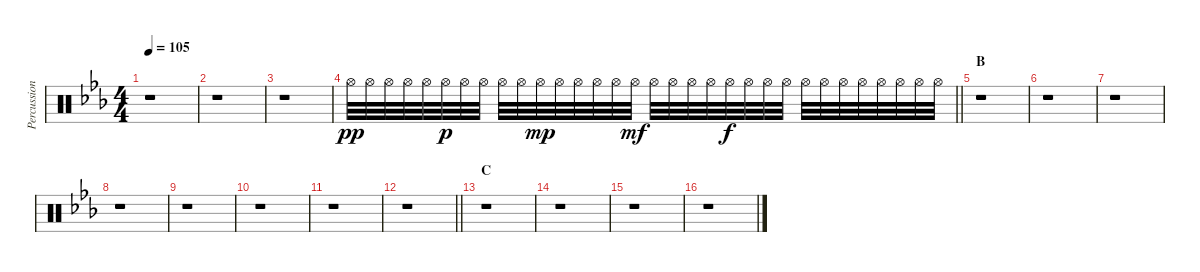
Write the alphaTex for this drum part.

\track ("Percussion" "Percussion") {instrument percussion}
\staff {score}
\articulation defaults
\ts (4 4)
\tempo 105
\clef neutral
\ks eb
r.1{dy pp} |
r.1 |
r.1 |
\barLineRight lightlight "Hi-Hat (open)".32 "Hi-Hat (open)".32 "Hi-Hat (open)".32 "Hi-Hat (open)".32 "Hi-Hat (open)".32 "Hi-Hat (open)".32{dy p} "Hi-Hat (open)".32 "Hi-Hat (open)".32 "Hi-Hat (open)".32 "Hi-Hat (open)".32 "Hi-Hat (open)".32{dy mp} "Hi-Hat (open)".32 "Hi-Hat (open)".32 "Hi-Hat (open)".32 "Hi-Hat (open)".32 "Hi-Hat (open)".32{dy mf} "Hi-Hat (open)".32 "Hi-Hat (open)".32 "Hi-Hat (open)".32 "Hi-Hat (open)".32 "Hi-Hat (open)".32{dy f} "Hi-Hat (open)".32 "Hi-Hat (open)".32 "Hi-Hat (open)".32 "Hi-Hat (open)".32 "Hi-Hat (open)".32 "Hi-Hat (open)".32 "Hi-Hat (open)".32 "Hi-Hat (open)".32 "Hi-Hat (open)".32 "Hi-Hat (open)".32 "Hi-Hat (open)".32
|
\section ("" "B")
r.1 |
r.1 |
r.1 |
r.1 |
r.1 |
r.1 |
r.1 |
\barLineRight lightlight
r.1 |
\section ("" "C")
r.1 |
r.1 |
r.1 |
r.1
